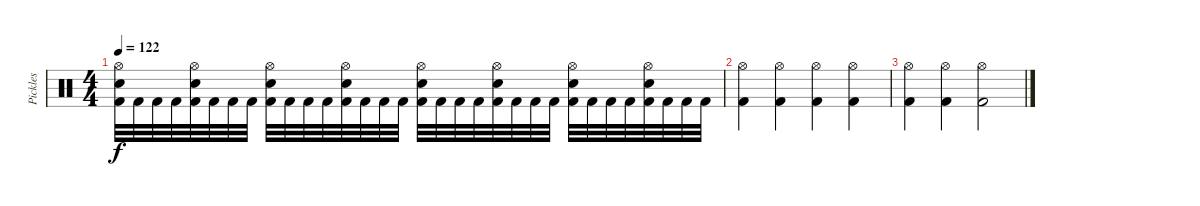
\track ("Pickles" "Pickles") {instrument percussion}
\staff {score}
\articulation defaults
\ts (4 4)
\tempo 122
\clef neutral
\ks c
("Hi-Hat (open)" "Electric Snare (hit)" "Kick (hit) 2").32{dy f} "Kick (hit) 2".32 "Kick (hit) 2".32 "Kick (hit) 2".32 ("Hi-Hat (open)" "Electric Snare (hit)" "Kick (hit) 2").32 "Kick (hit) 2".32 "Kick (hit) 2".32 "Kick (hit) 2".32 ("Hi-Hat (open)" "Electric Snare (hit)" "Kick (hit) 2").32 "Kick (hit) 2".32 "Kick (hit) 2".32 "Kick (hit) 2".32 ("Hi-Hat (open)" "Electric Snare (hit)" "Kick (hit) 2").32 "Kick (hit) 2".32 "Kick (hit) 2".32 "Kick (hit) 2".32 ("Hi-Hat (open)" "Electric Snare (hit)" "Kick (hit) 2").32 "Kick (hit) 2".32 "Kick (hit) 2".32 "Kick (hit) 2".32 ("Hi-Hat (open)" "Electric Snare (hit)" "Kick (hit) 2").32 "Kick (hit) 2".32 "Kick (hit) 2".32 "Kick (hit) 2".32 ("Hi-Hat (open)" "Electric Snare (hit)" "Kick (hit) 2").32 "Kick (hit) 2".32 "Kick (hit) 2".32 "Kick (hit) 2".32 ("Hi-Hat (open)" "Electric Snare (hit)" "Kick (hit) 2").32 "Kick (hit) 2".32 "Kick (hit) 2".32 "Kick (hit) 2".32 |
("Hi-Hat (open)" "Kick (hit) 2").4 ("Hi-Hat (open)" "Kick (hit) 2").4 ("Hi-Hat (open)" "Kick (hit) 2").4 ("Hi-Hat (open)" "Kick (hit) 2").4 |
("Hi-Hat (open)" "Kick (hit) 2").4 ("Hi-Hat (open)" "Kick (hit) 2").4 ("Hi-Hat (open)" "Kick (hit) 2").2
